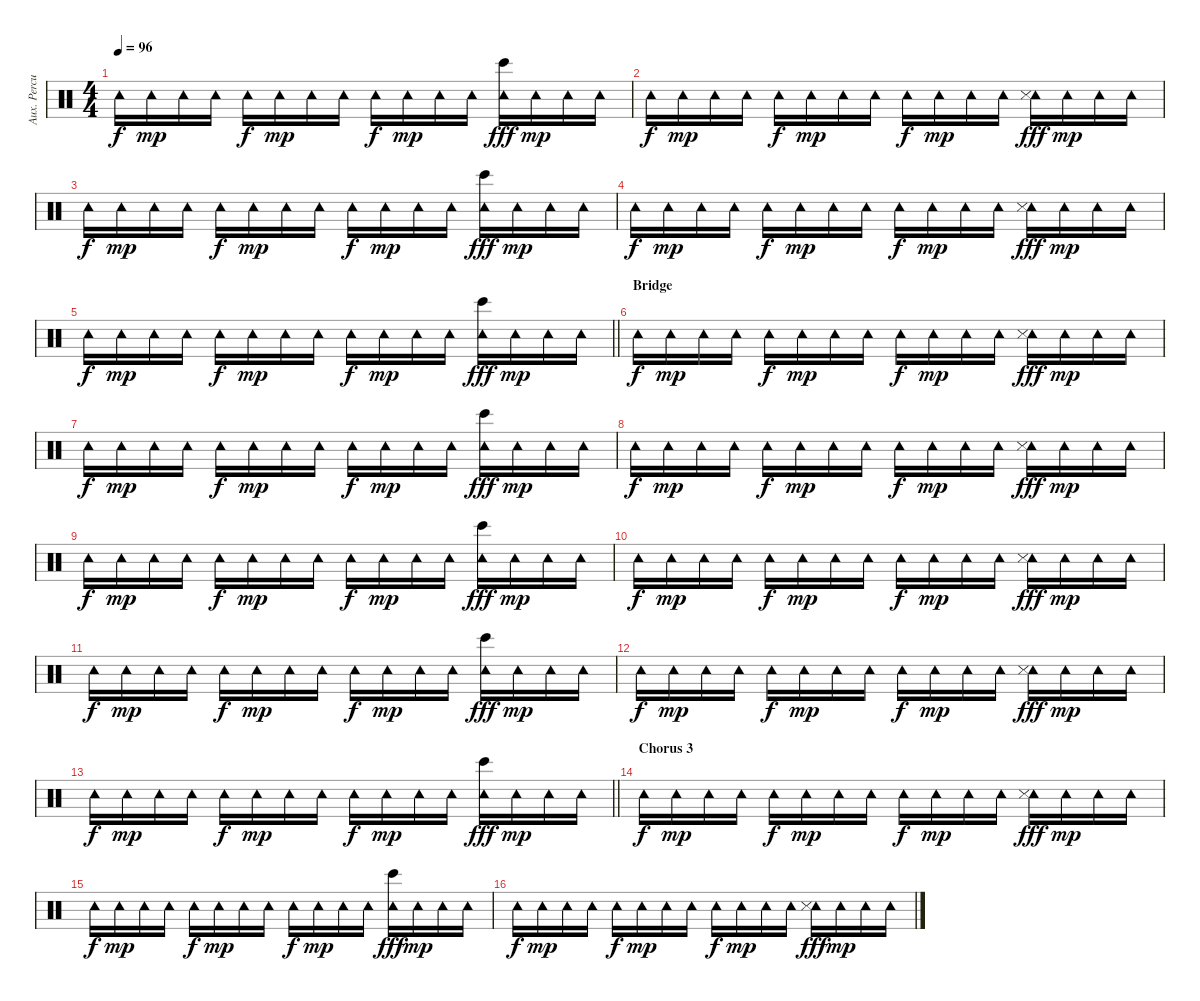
\track ("Aux. Percussion" "Aux. Percu") {instrument percussion}
\staff {score}
\articulation defaults
\ts (4 4)
\tempo 96
\clef neutral
\ks c "Tambourine (hit)".16{dy f} "Tambourine (hit)".16{dy mp} "Tambourine (hit)".16 "Tambourine (hit)".16 "Tambourine (hit)".16{dy f} "Tambourine (hit)".16{dy mp} "Tambourine (hit)".16 "Tambourine (hit)".16 "Tambourine (hit)".16{dy f} "Tambourine (hit)".16{dy mp} "Tambourine (hit)".16 "Tambourine (hit)".16
("Tambourine (hit)" "Bongo High (hit)").16{dy fff} "Tambourine (hit)".16{dy mp} "Tambourine (hit)".16 "Tambourine (hit)".16 |
"Tambourine (hit)".16{dy f} "Tambourine (hit)".16{dy mp} "Tambourine (hit)".16 "Tambourine (hit)".16 "Tambourine (hit)".16{dy f} "Tambourine (hit)".16{dy mp} "Tambourine (hit)".16 "Tambourine (hit)".16 "Tambourine (hit)".16{dy f} "Tambourine (hit)".16{dy mp} "Tambourine (hit)".16 "Tambourine (hit)".16 ("Tambourine (hit)" "Snare (side stick) 3").16{dy fff} "Tambourine (hit)".16{dy mp} "Tambourine (hit)".16 "Tambourine (hit)".16 |
"Tambourine (hit)".16{dy f} "Tambourine (hit)".16{dy mp} "Tambourine (hit)".16 "Tambourine (hit)".16 "Tambourine (hit)".16{dy f} "Tambourine (hit)".16{dy mp} "Tambourine (hit)".16 "Tambourine (hit)".16 "Tambourine (hit)".16{dy f} "Tambourine (hit)".16{dy mp} "Tambourine (hit)".16 "Tambourine (hit)".16 ("Tambourine (hit)" "Bongo High (hit)").16{dy fff} "Tambourine (hit)".16{dy mp} "Tambourine (hit)".16 "Tambourine (hit)".16 |
"Tambourine (hit)".16{dy f} "Tambourine (hit)".16{dy mp} "Tambourine (hit)".16 "Tambourine (hit)".16 "Tambourine (hit)".16{dy f} "Tambourine (hit)".16{dy mp} "Tambourine (hit)".16 "Tambourine (hit)".16 "Tambourine (hit)".16{dy f} "Tambourine (hit)".16{dy mp} "Tambourine (hit)".16 "Tambourine (hit)".16 ("Tambourine (hit)" "Snare (side stick) 3").16{dy fff} "Tambourine (hit)".16{dy mp} "Tambourine (hit)".16 "Tambourine (hit)".16 |
\barLineRight lightlight "Tambourine (hit)".16{dy f} "Tambourine (hit)".16{dy mp} "Tambourine (hit)".16 "Tambourine (hit)".16 "Tambourine (hit)".16{dy f} "Tambourine (hit)".16{dy mp} "Tambourine (hit)".16 "Tambourine (hit)".16 "Tambourine (hit)".16{dy f} "Tambourine (hit)".16{dy mp} "Tambourine (hit)".16 "Tambourine (hit)".16
("Tambourine (hit)" "Bongo High (hit)").16{dy fff} "Tambourine (hit)".16{dy mp} "Tambourine (hit)".16 "Tambourine (hit)".16 |
\section ("" "Bridge")
"Tambourine (hit)".16{dy f} "Tambourine (hit)".16{dy mp} "Tambourine (hit)".16 "Tambourine (hit)".16 "Tambourine (hit)".16{dy f} "Tambourine (hit)".16{dy mp} "Tambourine (hit)".16 "Tambourine (hit)".16 "Tambourine (hit)".16{dy f} "Tambourine (hit)".16{dy mp} "Tambourine (hit)".16 "Tambourine (hit)".16 ("Tambourine (hit)" "Snare (side stick) 3").16{dy fff} "Tambourine (hit)".16{dy mp} "Tambourine (hit)".16 "Tambourine (hit)".16 |
"Tambourine (hit)".16{dy f} "Tambourine (hit)".16{dy mp} "Tambourine (hit)".16 "Tambourine (hit)".16 "Tambourine (hit)".16{dy f} "Tambourine (hit)".16{dy mp} "Tambourine (hit)".16 "Tambourine (hit)".16 "Tambourine (hit)".16{dy f} "Tambourine (hit)".16{dy mp} "Tambourine (hit)".16 "Tambourine (hit)".16 ("Tambourine (hit)" "Bongo High (hit)").16{dy fff} "Tambourine (hit)".16{dy mp} "Tambourine (hit)".16 "Tambourine (hit)".16 |
"Tambourine (hit)".16{dy f} "Tambourine (hit)".16{dy mp} "Tambourine (hit)".16 "Tambourine (hit)".16 "Tambourine (hit)".16{dy f} "Tambourine (hit)".16{dy mp} "Tambourine (hit)".16 "Tambourine (hit)".16 "Tambourine (hit)".16{dy f} "Tambourine (hit)".16{dy mp} "Tambourine (hit)".16 "Tambourine (hit)".16 ("Tambourine (hit)" "Snare (side stick) 3").16{dy fff} "Tambourine (hit)".16{dy mp} "Tambourine (hit)".16 "Tambourine (hit)".16 |
"Tambourine (hit)".16{dy f} "Tambourine (hit)".16{dy mp} "Tambourine (hit)".16 "Tambourine (hit)".16 "Tambourine (hit)".16{dy f} "Tambourine (hit)".16{dy mp} "Tambourine (hit)".16 "Tambourine (hit)".16 "Tambourine (hit)".16{dy f} "Tambourine (hit)".16{dy mp} "Tambourine (hit)".16 "Tambourine (hit)".16 ("Tambourine (hit)" "Bongo High (hit)").16{dy fff} "Tambourine (hit)".16{dy mp} "Tambourine (hit)".16 "Tambourine (hit)".16 |
"Tambourine (hit)".16{dy f} "Tambourine (hit)".16{dy mp} "Tambourine (hit)".16 "Tambourine (hit)".16 "Tambourine (hit)".16{dy f} "Tambourine (hit)".16{dy mp} "Tambourine (hit)".16 "Tambourine (hit)".16 "Tambourine (hit)".16{dy f} "Tambourine (hit)".16{dy mp} "Tambourine (hit)".16 "Tambourine (hit)".16 ("Tambourine (hit)" "Snare (side stick) 3").16{dy fff} "Tambourine (hit)".16{dy mp} "Tambourine (hit)".16 "Tambourine (hit)".16 |
"Tambourine (hit)".16{dy f} "Tambourine (hit)".16{dy mp} "Tambourine (hit)".16 "Tambourine (hit)".16 "Tambourine (hit)".16{dy f} "Tambourine (hit)".16{dy mp} "Tambourine (hit)".16 "Tambourine (hit)".16 "Tambourine (hit)".16{dy f} "Tambourine (hit)".16{dy mp} "Tambourine (hit)".16 "Tambourine (hit)".16 ("Tambourine (hit)" "Bongo High (hit)").16{dy fff} "Tambourine (hit)".16{dy mp} "Tambourine (hit)".16 "Tambourine (hit)".16 |
"Tambourine (hit)".16{dy f} "Tambourine (hit)".16{dy mp} "Tambourine (hit)".16 "Tambourine (hit)".16 "Tambourine (hit)".16{dy f} "Tambourine (hit)".16{dy mp} "Tambourine (hit)".16 "Tambourine (hit)".16 "Tambourine (hit)".16{dy f} "Tambourine (hit)".16{dy mp} "Tambourine (hit)".16 "Tambourine (hit)".16 ("Tambourine (hit)" "Snare (side stick) 3").16{dy fff} "Tambourine (hit)".16{dy mp} "Tambourine (hit)".16 "Tambourine (hit)".16 |
\barLineRight lightlight "Tambourine (hit)".16{dy f} "Tambourine (hit)".16{dy mp} "Tambourine (hit)".16 "Tambourine (hit)".16 "Tambourine (hit)".16{dy f} "Tambourine (hit)".16{dy mp} "Tambourine (hit)".16 "Tambourine (hit)".16 "Tambourine (hit)".16{dy f} "Tambourine (hit)".16{dy mp} "Tambourine (hit)".16 "Tambourine (hit)".16
("Tambourine (hit)" "Bongo High (hit)").16{dy fff} "Tambourine (hit)".16{dy mp} "Tambourine (hit)".16 "Tambourine (hit)".16 |
\section ("" "Chorus 3")
"Tambourine (hit)".16{dy f} "Tambourine (hit)".16{dy mp} "Tambourine (hit)".16 "Tambourine (hit)".16 "Tambourine (hit)".16{dy f} "Tambourine (hit)".16{dy mp} "Tambourine (hit)".16 "Tambourine (hit)".16 "Tambourine (hit)".16{dy f} "Tambourine (hit)".16{dy mp} "Tambourine (hit)".16 "Tambourine (hit)".16 ("Tambourine (hit)" "Snare (side stick) 3").16{dy fff} "Tambourine (hit)".16{dy mp} "Tambourine (hit)".16 "Tambourine (hit)".16 |
"Tambourine (hit)".16{dy f} "Tambourine (hit)".16{dy mp} "Tambourine (hit)".16 "Tambourine (hit)".16 "Tambourine (hit)".16{dy f} "Tambourine (hit)".16{dy mp} "Tambourine (hit)".16 "Tambourine (hit)".16 "Tambourine (hit)".16{dy f} "Tambourine (hit)".16{dy mp} "Tambourine (hit)".16 "Tambourine (hit)".16 ("Tambourine (hit)" "Bongo High (hit)").16{dy fff} "Tambourine (hit)".16{dy mp} "Tambourine (hit)".16 "Tambourine (hit)".16 |
"Tambourine (hit)".16{dy f} "Tambourine (hit)".16{dy mp} "Tambourine (hit)".16 "Tambourine (hit)".16 "Tambourine (hit)".16{dy f} "Tambourine (hit)".16{dy mp} "Tambourine (hit)".16 "Tambourine (hit)".16 "Tambourine (hit)".16{dy f} "Tambourine (hit)".16{dy mp} "Tambourine (hit)".16 "Tambourine (hit)".16 ("Tambourine (hit)" "Snare (side stick) 3").16{dy fff} "Tambourine (hit)".16{dy mp} "Tambourine (hit)".16 "Tambourine (hit)".16
